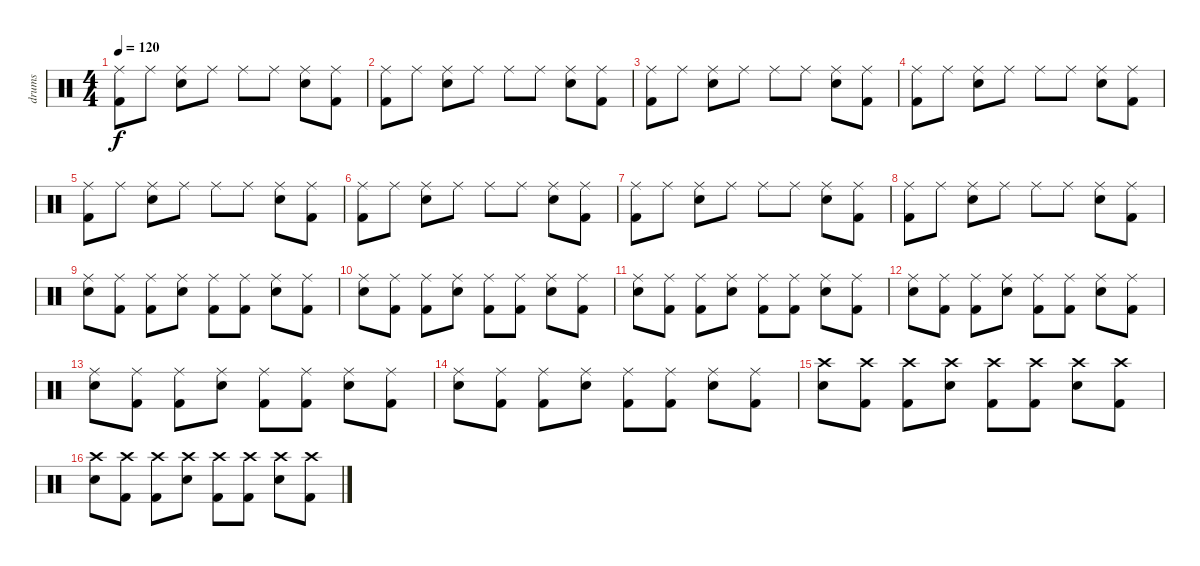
\track ("drums" "drums") {instrument percussion}
\staff {score}
\articulation defaults
\ts (4 4)
\tempo 120
\clef neutral
\ks c
("Kick (hit) 2" "Ride (middle)").8{dy f} "Ride (middle)".8 ("Ride (middle)" "Snare (hit) 2").8 "Ride (middle)".8 "Ride (middle)".8 "Ride (middle)".8 ("Snare (hit) 2" "Ride (middle)").8 ("Ride (middle)" "Kick (hit) 2").8 |
("Kick (hit) 2" "Ride (middle)").8 "Ride (middle)".8 ("Ride (middle)" "Snare (hit) 2").8 "Ride (middle)".8 "Ride (middle)".8 "Ride (middle)".8 ("Snare (hit) 2" "Ride (middle)").8 ("Ride (middle)" "Kick (hit) 2").8 |
("Kick (hit) 2" "Ride (middle)").8 "Ride (middle)".8 ("Ride (middle)" "Snare (hit) 2").8 "Ride (middle)".8 "Ride (middle)".8 "Ride (middle)".8 ("Snare (hit) 2" "Ride (middle)").8 ("Ride (middle)" "Kick (hit) 2").8 |
("Kick (hit) 2" "Ride (middle)").8 "Ride (middle)".8 ("Ride (middle)" "Snare (hit) 2").8 "Ride (middle)".8 "Ride (middle)".8 "Ride (middle)".8 ("Snare (hit) 2" "Ride (middle)").8 ("Ride (middle)" "Kick (hit) 2").8 |
("Kick (hit) 2" "Ride (middle)").8 "Ride (middle)".8 ("Ride (middle)" "Snare (hit) 2").8 "Ride (middle)".8 "Ride (middle)".8 "Ride (middle)".8 ("Snare (hit) 2" "Ride (middle)").8 ("Ride (middle)" "Kick (hit) 2").8 |
("Kick (hit) 2" "Ride (middle)").8 "Ride (middle)".8 ("Ride (middle)" "Snare (hit) 2").8 "Ride (middle)".8 "Ride (middle)".8 "Ride (middle)".8 ("Snare (hit) 2" "Ride (middle)").8 ("Ride (middle)" "Kick (hit) 2").8 |
("Kick (hit) 2" "Ride (middle)").8 "Ride (middle)".8 ("Ride (middle)" "Snare (hit) 2").8 "Ride (middle)".8 "Ride (middle)".8 "Ride (middle)".8 ("Snare (hit) 2" "Ride (middle)").8 ("Ride (middle)" "Kick (hit) 2").8 |
("Kick (hit) 2" "Ride (middle)").8 "Ride (middle)".8 ("Ride (middle)" "Snare (hit) 2").8 "Ride (middle)".8 "Ride (middle)".8 "Ride (middle)".8 ("Snare (hit) 2" "Ride (middle)").8 ("Ride (middle)" "Kick (hit) 2").8 |
("Snare (hit) 2" "Ride (middle)").8 ("Kick (hit) 2" "Ride (middle)").8 ("Ride (middle)" "Kick (hit) 2").8 ("Snare (hit) 2" "Ride (middle)").8 ("Kick (hit) 2" "Ride (middle)").8 ("Kick (hit) 2" "Ride (middle)").8 ("Snare (hit) 2" "Ride (middle)").8 ("Ride (middle)" "Kick (hit) 2").8 |
("Snare (hit) 2" "Ride (middle)").8 ("Kick (hit) 2" "Ride (middle)").8 ("Ride (middle)" "Kick (hit) 2").8 ("Snare (hit) 2" "Ride (middle)").8 ("Kick (hit) 2" "Ride (middle)").8 ("Kick (hit) 2" "Ride (middle)").8 ("Snare (hit) 2" "Ride (middle)").8 ("Ride (middle)" "Kick (hit) 2").8 |
("Snare (hit) 2" "Ride (middle)").8 ("Kick (hit) 2" "Ride (middle)").8 ("Ride (middle)" "Kick (hit) 2").8 ("Snare (hit) 2" "Ride (middle)").8 ("Kick (hit) 2" "Ride (middle)").8 ("Kick (hit) 2" "Ride (middle)").8 ("Snare (hit) 2" "Ride (middle)").8 ("Ride (middle)" "Kick (hit) 2").8 |
("Snare (hit) 2" "Ride (middle)").8 ("Kick (hit) 2" "Ride (middle)").8 ("Ride (middle)" "Kick (hit) 2").8 ("Snare (hit) 2" "Ride (middle)").8 ("Kick (hit) 2" "Ride (middle)").8 ("Kick (hit) 2" "Ride (middle)").8 ("Snare (hit) 2" "Ride (middle)").8 ("Ride (middle)" "Kick (hit) 2").8 |
("Snare (hit) 2" "Ride (middle)").8 ("Kick (hit) 2" "Ride (middle)").8 ("Ride (middle)" "Kick (hit) 2").8 ("Snare (hit) 2" "Ride (middle)").8 ("Kick (hit) 2" "Ride (middle)").8 ("Kick (hit) 2" "Ride (middle)").8 ("Snare (hit) 2" "Ride (middle)").8 ("Ride (middle)" "Kick (hit) 2").8 |
("Snare (hit) 2" "Ride (middle)").8 ("Kick (hit) 2" "Ride (middle)").8 ("Ride (middle)" "Kick (hit) 2").8 ("Snare (hit) 2" "Ride (middle)").8 ("Kick (hit) 2" "Ride (middle)").8 ("Kick (hit) 2" "Ride (middle)").8 ("Snare (hit) 2" "Ride (middle)").8 ("Ride (middle)" "Kick (hit) 2").8 |
("Snare (hit) 2" "Crash high (hit)").8 ("Kick (hit) 2" "Crash high (hit)").8 ("Crash high (hit)" "Kick (hit) 2").8 ("Snare (hit) 2" "Crash high (hit)").8 ("Kick (hit) 2" "Crash high (hit)").8 ("Kick (hit) 2" "Crash high (hit)").8 ("Snare (hit) 2" "Crash high (hit)").8 ("Crash high (hit)" "Kick (hit) 2").8 |
("Snare (hit) 2" "Crash high (hit)").8 ("Kick (hit) 2" "Crash high (hit)").8 ("Crash high (hit)" "Kick (hit) 2").8 ("Snare (hit) 2" "Crash high (hit)").8 ("Kick (hit) 2" "Crash high (hit)").8 ("Kick (hit) 2" "Crash high (hit)").8 ("Snare (hit) 2" "Crash high (hit)").8 ("Crash high (hit)" "Kick (hit) 2").8
